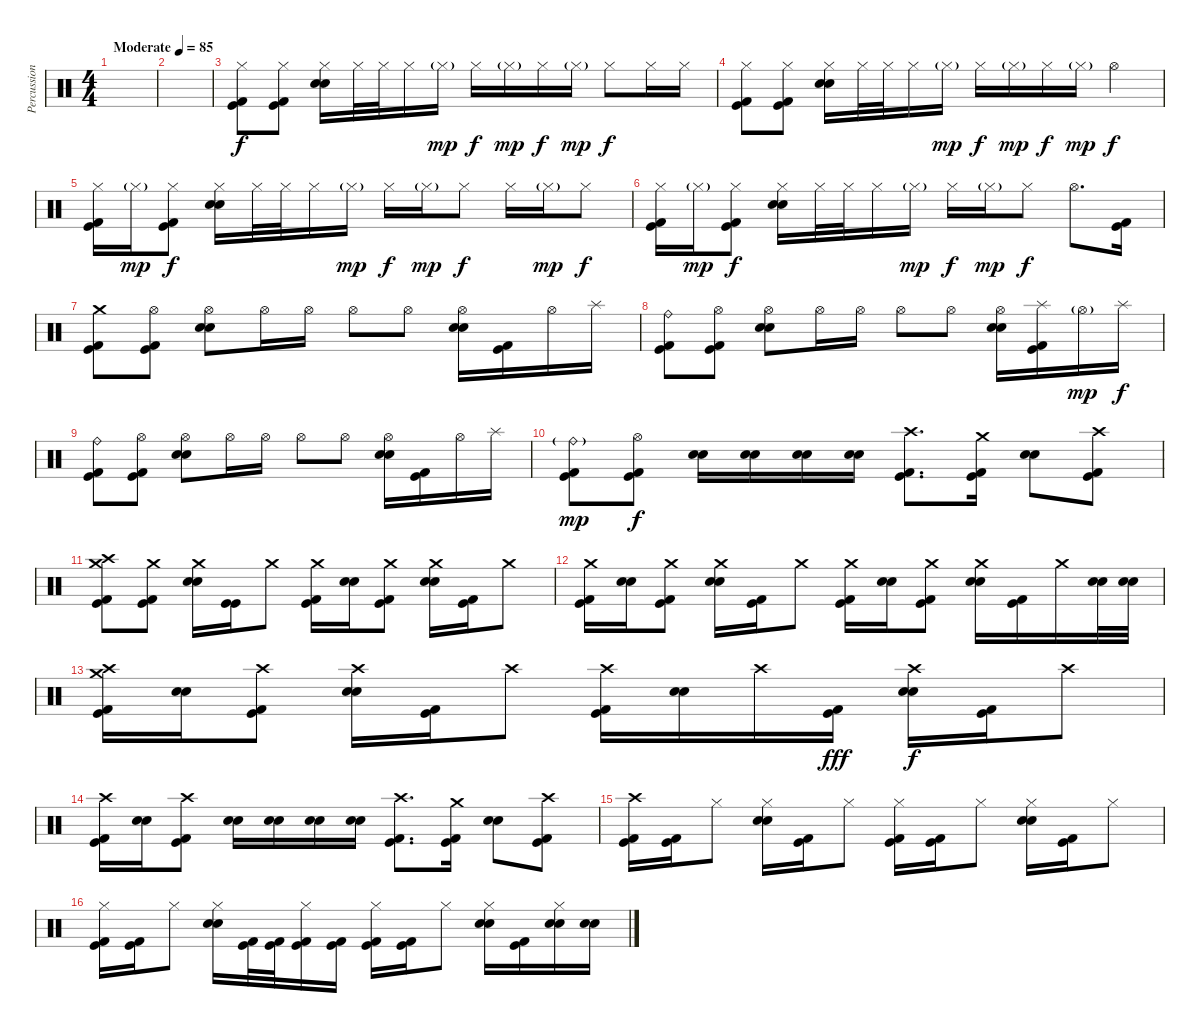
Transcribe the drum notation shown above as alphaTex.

\track ("Percussion" "Percussion") {instrument percussion}
\staff {score}
\articulation defaults
\ts (4 4)
\tempo (85 "Moderate")
\clef neutral
\ks c
|
|
("Hi-Hat (closed)" "Kick (hit)" "Kick (hit) 2").8 ("Hi-Hat (closed)" "Kick (hit)" "Kick (hit) 2").8 ("Hi-Hat (closed)" "Electric Snare (hit)" "Snare (hit) 2").16 "Hi-Hat (closed)".32 "Hi-Hat (closed)".32 "Hi-Hat (closed)".16 "Hi-Hat (closed)"{g}.16{dy mp} "Hi-Hat (closed)".16{dy f} "Hi-Hat (closed)"{g}.16{dy mp} "Hi-Hat (closed)".16{dy f} "Hi-Hat (closed)"{g}.16{dy mp} "Hi-Hat (closed)".8{dy f} "Hi-Hat (closed)".16 "Hi-Hat (closed)".16 |
("Hi-Hat (closed)" "Kick (hit)" "Kick (hit) 2").8 ("Hi-Hat (closed)" "Kick (hit)" "Kick (hit) 2").8 ("Hi-Hat (closed)" "Electric Snare (hit)" "Snare (hit) 2").16 "Hi-Hat (closed)".32 "Hi-Hat (closed)".32 "Hi-Hat (closed)".16 "Hi-Hat (closed)"{g}.16{dy mp} "Hi-Hat (closed)".16{dy f} "Hi-Hat (closed)"{g}.16{dy mp} "Hi-Hat (closed)".16{dy f} "Hi-Hat (closed)"{g}.16{dy mp} "Hi-Hat (open)".4{dy f} |
("Hi-Hat (closed)" "Kick (hit)" "Kick (hit) 2").16 "Hi-Hat (closed)"{g}.16{dy mp} ("Hi-Hat (closed)" "Kick (hit)" "Kick (hit) 2").8{dy f} ("Hi-Hat (closed)" "Electric Snare (hit)" "Snare (hit) 2").16 "Hi-Hat (closed)".32 "Hi-Hat (closed)".32 "Hi-Hat (closed)".16 "Hi-Hat (closed)"{g}.16{dy mp} "Hi-Hat (closed)".16{dy f} "Hi-Hat (closed)"{g}.16{dy mp} "Hi-Hat (closed)".8{dy f} "Hi-Hat (closed)".16 "Hi-Hat (closed)"{g}.16{dy mp} "Hi-Hat (closed)".8{dy f} |
("Hi-Hat (closed)" "Kick (hit)" "Kick (hit) 2").16 "Hi-Hat (closed)"{g}.16{dy mp} ("Hi-Hat (closed)" "Kick (hit)" "Kick (hit) 2").8{dy f} ("Hi-Hat (closed)" "Electric Snare (hit)" "Snare (hit) 2").16 "Hi-Hat (closed)".32 "Hi-Hat (closed)".32 "Hi-Hat (closed)".16 "Hi-Hat (closed)"{g}.16{dy mp} "Hi-Hat (closed)".16{dy f} "Hi-Hat (closed)"{g}.16{dy mp} "Hi-Hat (closed)".8{dy f} "Hi-Hat (open)".8{d} ("Kick (hit)" "Kick (hit) 2").16 |
("Crash medium (hit)" "Kick (hit)" "Kick (hit) 2").8 ("Hi-Hat (open)" "Kick (hit)" "Kick (hit) 2").8 ("Hi-Hat (open)" "Electric Snare (hit)" "Snare (hit) 2").8 "Hi-Hat (open)".16 "Hi-Hat (open)".16 "Hi-Hat (open)".8 "Hi-Hat (open)".8 ("Hi-Hat (open)" "Electric Snare (hit)" "Snare (hit) 2").16 ("Kick (hit)" "Kick (hit) 2").16 "Hi-Hat (open)".16 "Splash (hit)".16 |
("Ride (bell)" "Kick (hit)" "Kick (hit) 2").8 ("Hi-Hat (open)" "Kick (hit)" "Kick (hit) 2").8 ("Hi-Hat (open)" "Electric Snare (hit)" "Snare (hit) 2").8 "Hi-Hat (open)".16 "Hi-Hat (open)".16 "Hi-Hat (open)".8 "Hi-Hat (open)".8 ("Hi-Hat (open)" "Electric Snare (hit)" "Snare (hit) 2").16 ("Splash (hit)" "Kick (hit)" "Kick (hit) 2").16 "Hi-Hat (open)"{g}.16{dy mp} "Splash (hit)".16{dy f} |
("Ride (bell)" "Kick (hit)" "Kick (hit) 2").8 ("Hi-Hat (open)" "Kick (hit)" "Kick (hit) 2").8 ("Hi-Hat (open)" "Electric Snare (hit)" "Snare (hit) 2").8 "Hi-Hat (open)".16 "Hi-Hat (open)".16 "Hi-Hat (open)".8 "Hi-Hat (open)".8 ("Hi-Hat (open)" "Electric Snare (hit)" "Snare (hit) 2").16 ("Kick (hit)" "Kick (hit) 2").16 "Hi-Hat (open)".16 "Splash (hit)".16 |
("Ride (bell)"{g} "Kick (hit)" "Kick (hit) 2").8{dy mp} ("Hi-Hat (open)" "Kick (hit)" "Kick (hit) 2").8{dy f} ("Electric Snare (hit)" "Snare (hit) 2").16 ("Electric Snare (hit)" "Snare (hit) 2").16 ("Electric Snare (hit)" "Snare (hit) 2").16 ("Electric Snare (hit)" "Snare (hit) 2").16 ("Crash high (hit)" "Kick (hit)" "Kick (hit) 2").8{d} ("Crash medium (hit)" "Kick (hit)" "Kick (hit) 2").16 ("Electric Snare (hit)" "Snare (hit) 2").8 ("Crash high (hit)" "Kick (hit)" "Kick (hit) 2").8 |
("Crash medium (hit)" "Crash high (hit)" "Kick (hit)" "Kick (hit) 2").8 ("Crash medium (hit)" "Kick (hit)" "Kick (hit) 2").8 ("Crash medium (hit)" "Electric Snare (hit)" "Snare (hit) 2").16 ("Kick (hit)" "Kick (hit)").16 "Crash medium (hit)".8 ("Crash medium (hit)" "Kick (hit)" "Kick (hit) 2").16 ("Electric Snare (hit)" "Snare (hit) 2").16 ("Crash medium (hit)" "Kick (hit)" "Kick (hit) 2").8 ("Crash medium (hit)" "Electric Snare (hit)" "Snare (hit) 2").16 ("Kick (hit)" "Kick (hit) 2").16 "Crash medium (hit)".8 |
("Crash medium (hit)" "Kick (hit)" "Kick (hit) 2").16 ("Electric Snare (hit)" "Snare (hit) 2").16 ("Crash medium (hit)" "Kick (hit)" "Kick (hit) 2").8 ("Crash medium (hit)" "Electric Snare (hit)" "Snare (hit) 2").16 ("Kick (hit)" "Kick (hit) 2").16 "Crash medium (hit)".8 ("Crash medium (hit)" "Kick (hit)" "Kick (hit) 2").16 ("Electric Snare (hit)" "Snare (hit) 2").16 ("Crash medium (hit)" "Kick (hit)" "Kick (hit) 2").8 ("Crash medium (hit)" "Electric Snare (hit)" "Snare (hit) 2").16 ("Kick (hit)" "Kick (hit) 2").16 "Crash medium (hit)".16 ("Electric Snare (hit)" "Snare (hit) 2").32 ("Electric Snare (hit)" "Snare (hit) 2").32 |
("Crash high (hit)" "Crash medium (hit)" "Kick (hit)" "Kick (hit) 2").16 ("Electric Snare (hit)" "Snare (hit) 2").16 ("Crash high (hit)" "Kick (hit)" "Kick (hit) 2").8 ("Crash high (hit)" "Electric Snare (hit)" "Snare (hit) 2").16 ("Kick (hit)" "Kick (hit) 2").16 "Crash high (hit)".8 ("Crash high (hit)" "Kick (hit)" "Kick (hit) 2").16 ("Electric Snare (hit)" "Snare (hit) 2").16 "Crash high (hit)".16 ("Kick (hit)" "Kick (hit) 2").16{dy fff} ("Crash high (hit)" "Electric Snare (hit)" "Snare (hit) 2").16{dy f} ("Kick (hit)" "Kick (hit) 2").16 "Crash high (hit)".8 |
("Crash high (hit)" "Kick (hit)" "Kick (hit) 2").16 ("Electric Snare (hit)" "Snare (hit) 2").16 ("Crash high (hit)" "Kick (hit)" "Kick (hit) 2").8 ("Electric Snare (hit)" "Snare (hit) 2").16 ("Electric Snare (hit)" "Snare (hit) 2").16 ("Electric Snare (hit)" "Snare (hit) 2").16 ("Electric Snare (hit)" "Snare (hit) 2").16 ("Crash high (hit)" "Kick (hit)" "Kick (hit) 2").8{d} ("Crash medium (hit)" "Kick (hit)" "Kick (hit) 2").16 ("Electric Snare (hit)" "Snare (hit) 2").8 ("Crash high (hit)" "Kick (hit)" "Kick (hit) 2").8 |
("Crash high (hit)" "Kick (hit)" "Kick (hit) 2").16 ("Kick (hit)" "Kick (hit) 2").16 "Hi-Hat (closed)".8 ("Hi-Hat (closed)" "Electric Snare (hit)" "Snare (hit) 2").16 ("Kick (hit)" "Kick (hit) 2").16 "Hi-Hat (closed)".8 ("Hi-Hat (closed)" "Kick (hit)" "Kick (hit) 2").16 ("Kick (hit)" "Kick (hit) 2").16 "Hi-Hat (closed)".8 ("Hi-Hat (closed)" "Electric Snare (hit)" "Snare (hit) 2").16 ("Kick (hit)" "Kick (hit) 2").16 "Hi-Hat (closed)".8 |
("Hi-Hat (closed)" "Kick (hit)" "Kick (hit) 2").16 ("Kick (hit)" "Kick (hit) 2").16 "Hi-Hat (closed)".8 ("Hi-Hat (closed)" "Electric Snare (hit)" "Snare (hit) 2").16 ("Kick (hit)" "Kick (hit) 2").32 ("Kick (hit)" "Kick (hit) 2").32 ("Hi-Hat (closed)" "Kick (hit)" "Kick (hit) 2").16 ("Kick (hit)" "Kick (hit) 2").16 ("Hi-Hat (closed)" "Kick (hit)" "Kick (hit) 2").16 ("Kick (hit)" "Kick (hit) 2").16 "Hi-Hat (closed)".8 ("Hi-Hat (closed)" "Electric Snare (hit)" "Snare (hit) 2").16 ("Kick (hit)" "Kick (hit) 2").16 ("Hi-Hat (closed)" "Electric Snare (hit)" "Snare (hit) 2").16 ("Electric Snare (hit)" "Snare (hit) 2").16
